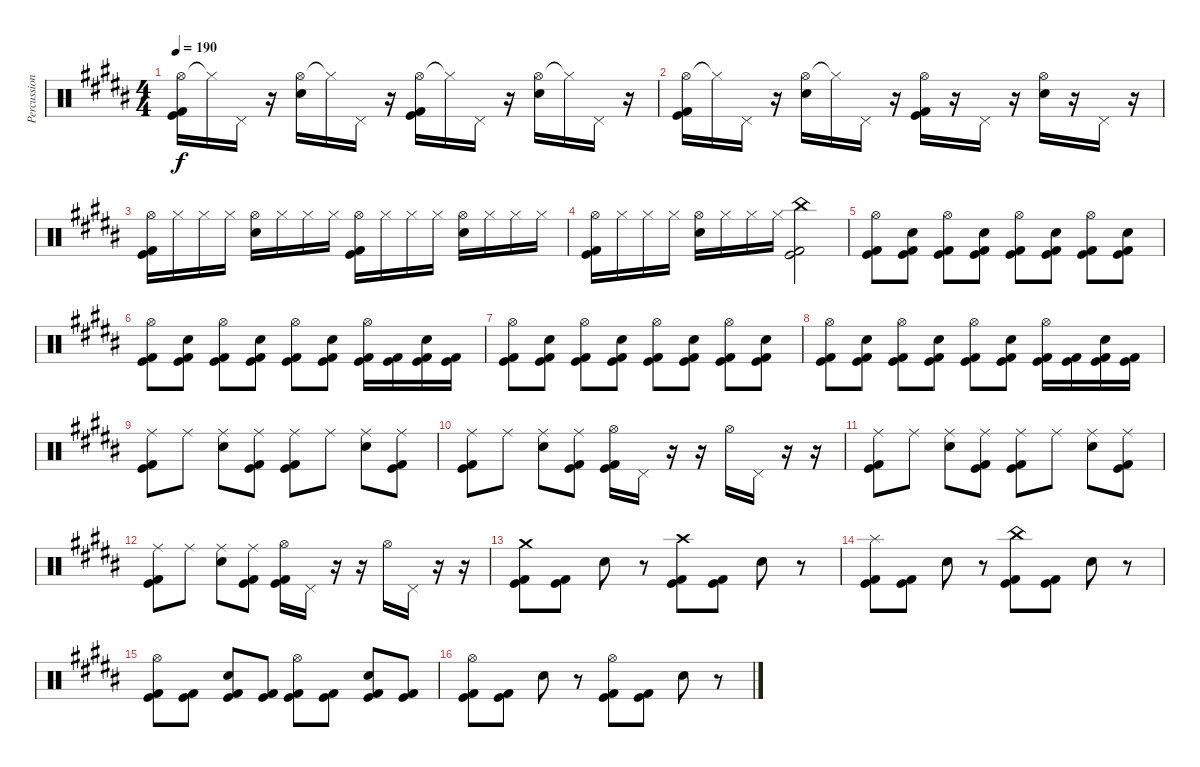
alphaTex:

\track ("Percussion" "Percussion") {instrument percussion}
\staff {score}
\articulation defaults
\ts (4 4)
\tempo 190
\clef neutral
\ks g#minor
("Hi-Hat (open)" "Kick (hit)" "Kick (hit) 2").16{dy f} "Hi-Hat (closed)"{t}.16 "Pedal Hi-Hat (hit)".16 r.16 ("Hi-Hat (open)" "Snare (hit) 2").16 "Hi-Hat (closed)"{t}.16 "Pedal Hi-Hat (hit)".16 r.16 ("Hi-Hat (open)" "Kick (hit)" "Kick (hit) 2").16 "Hi-Hat (closed)"{t}.16 "Pedal Hi-Hat (hit)".16 r.16 ("Hi-Hat (open)" "Snare (hit) 2").16 "Hi-Hat (closed)"{t}.16 "Pedal Hi-Hat (hit)".16 r.16 |
("Hi-Hat (open)" "Kick (hit)" "Kick (hit) 2").16 "Hi-Hat (closed)"{t}.16 "Pedal Hi-Hat (hit)".16 r.16 ("Hi-Hat (open)" "Snare (hit) 2").16 "Hi-Hat (closed)"{t}.16 "Pedal Hi-Hat (hit)".16 r.16 ("Hi-Hat (open)" "Kick (hit)" "Kick (hit) 2").16 r.16 "Pedal Hi-Hat (hit)".16 r.16 ("Hi-Hat (open)" "Snare (hit) 2").16 r.16 "Pedal Hi-Hat (hit)".16 r.16 |
("Hi-Hat (open)" "Kick (hit)" "Kick (hit) 2").16 "Hi-Hat (closed)".16 "Hi-Hat (closed)".16 "Hi-Hat (closed)".16 ("Hi-Hat (open)" "Snare (hit) 2").16 "Hi-Hat (closed)".16 "Hi-Hat (closed)".16 "Hi-Hat (closed)".16 ("Hi-Hat (open)" "Kick (hit)" "Kick (hit) 2").16 "Hi-Hat (closed)".16 "Hi-Hat (closed)".16 "Hi-Hat (closed)".16 ("Hi-Hat (open)" "Snare (hit) 2").16 "Hi-Hat (closed)".16 "Hi-Hat (closed)".16 "Hi-Hat (closed)".16 |
("Hi-Hat (open)" "Kick (hit)" "Kick (hit) 2").16 "Hi-Hat (closed)".16 "Hi-Hat (closed)".16 "Hi-Hat (closed)".16 ("Hi-Hat (open)" "Snare (hit) 2").16 "Hi-Hat (closed)".16 "Hi-Hat (closed)".16 "Hi-Hat (closed)".16 ("China (hit)" "Kick (hit)" "Kick (hit) 2").2 |
("Hi-Hat (open)" "Kick (hit)" "Kick (hit) 2").8 ("Snare (hit) 2" "Kick (hit)" "Kick (hit) 2").8 ("Hi-Hat (open)" "Kick (hit)" "Kick (hit) 2").8 ("Snare (hit) 2" "Kick (hit)" "Kick (hit) 2").8 ("Hi-Hat (open)" "Kick (hit)" "Kick (hit) 2").8 ("Snare (hit) 2" "Kick (hit)" "Kick (hit) 2").8 ("Hi-Hat (open)" "Kick (hit)" "Kick (hit) 2").8 ("Snare (hit) 2" "Kick (hit)" "Kick (hit) 2").8 |
("Hi-Hat (open)" "Kick (hit)" "Kick (hit) 2").8 ("Snare (hit) 2" "Kick (hit)" "Kick (hit) 2").8 ("Hi-Hat (open)" "Kick (hit)" "Kick (hit) 2").8 ("Snare (hit) 2" "Kick (hit)" "Kick (hit) 2").8 ("Hi-Hat (open)" "Kick (hit)" "Kick (hit) 2").8 ("Snare (hit) 2" "Kick (hit)" "Kick (hit) 2").8 ("Hi-Hat (open)" "Kick (hit)" "Kick (hit) 2").16 ("Kick (hit)" "Kick (hit) 2").16 ("Snare (hit) 2" "Kick (hit)" "Kick (hit) 2").16 ("Kick (hit)" "Kick (hit) 2").16 |
("Hi-Hat (open)" "Kick (hit)" "Kick (hit) 2").8 ("Snare (hit) 2" "Kick (hit)" "Kick (hit) 2").8 ("Hi-Hat (open)" "Kick (hit)" "Kick (hit) 2").8 ("Snare (hit) 2" "Kick (hit)" "Kick (hit) 2").8 ("Hi-Hat (open)" "Kick (hit)" "Kick (hit) 2").8 ("Snare (hit) 2" "Kick (hit)" "Kick (hit) 2").8 ("Hi-Hat (open)" "Kick (hit)" "Kick (hit) 2").8 ("Snare (hit) 2" "Kick (hit)" "Kick (hit) 2").8 |
("Hi-Hat (open)" "Kick (hit)" "Kick (hit) 2").8 ("Snare (hit) 2" "Kick (hit)" "Kick (hit) 2").8 ("Hi-Hat (open)" "Kick (hit)" "Kick (hit) 2").8 ("Snare (hit) 2" "Kick (hit)" "Kick (hit) 2").8 ("Hi-Hat (open)" "Kick (hit)" "Kick (hit) 2").8 ("Snare (hit) 2" "Kick (hit)" "Kick (hit) 2").8 ("Hi-Hat (open)" "Kick (hit)" "Kick (hit) 2").16 ("Kick (hit)" "Kick (hit) 2").16 ("Snare (hit) 2" "Kick (hit)" "Kick (hit) 2").16 ("Kick (hit)" "Kick (hit) 2").16 |
("Ride (middle)" "Kick (hit)" "Kick (hit) 2").8 "Ride (middle)".8 ("Ride (middle)" "Snare (hit) 2").8 ("Ride (middle)" "Kick (hit)" "Kick (hit) 2").8 ("Ride (middle)" "Kick (hit)" "Kick (hit) 2").8 "Ride (middle)".8 ("Ride (middle)" "Snare (hit) 2").8 ("Ride (middle)" "Kick (hit)" "Kick (hit) 2").8 |
("Ride (middle)" "Kick (hit)" "Kick (hit) 2").8 "Ride (middle)".8 ("Ride (middle)" "Snare (hit) 2").8 ("Ride (middle)" "Kick (hit)" "Kick (hit) 2").8 ("Hi-Hat (open)" "Kick (hit)" "Kick (hit) 2").16 "Pedal Hi-Hat (hit)".16 r.16 r.16 "Hi-Hat (open)".16 "Pedal Hi-Hat (hit)".16 r.16 r.16 |
("Ride (middle)" "Kick (hit)" "Kick (hit) 2").8 "Ride (middle)".8 ("Ride (middle)" "Snare (hit) 2").8 ("Ride (middle)" "Kick (hit)" "Kick (hit) 2").8 ("Ride (middle)" "Kick (hit)" "Kick (hit) 2").8 "Ride (middle)".8 ("Ride (middle)" "Snare (hit) 2").8 ("Ride (middle)" "Kick (hit)" "Kick (hit) 2").8 |
("Ride (middle)" "Kick (hit)" "Kick (hit) 2").8 "Ride (middle)".8 ("Ride (middle)" "Snare (hit) 2").8 ("Ride (middle)" "Kick (hit)" "Kick (hit) 2").8 ("Hi-Hat (open)" "Kick (hit)" "Kick (hit) 2").16 "Pedal Hi-Hat (hit)".16 r.16 r.16 "Hi-Hat (open)".16 "Pedal Hi-Hat (hit)".16 r.16 r.16 |
("Crash medium (hit)" "Kick (hit)" "Kick (hit) 2").8 ("Kick (hit)" "Kick (hit) 2").8 "Snare (hit) 2".8 r.8 ("Crash high (hit)" "Kick (hit)" "Kick (hit) 2").8 ("Kick (hit)" "Kick (hit) 2").8 "Snare (hit) 2".8 r.8 |
("Splash (hit)" "Kick (hit)" "Kick (hit) 2").8 ("Kick (hit)" "Kick (hit) 2").8 "Snare (hit) 2".8 r.8 ("China (hit)" "Kick (hit)" "Kick (hit) 2").8 ("Kick (hit)" "Kick (hit) 2").8 "Snare (hit) 2".8 r.8 |
("Hi-Hat (open)" "Kick (hit)" "Kick (hit) 2").8 ("Kick (hit)" "Kick (hit) 2").8 ("Snare (hit) 2" "Kick (hit)" "Kick (hit) 2").8 ("Kick (hit)" "Kick (hit) 2").8 ("Hi-Hat (open)" "Kick (hit)" "Kick (hit) 2").8 ("Kick (hit)" "Kick (hit) 2").8 ("Snare (hit) 2" "Kick (hit)" "Kick (hit) 2").8 ("Kick (hit)" "Kick (hit) 2").8 |
("Hi-Hat (open)" "Kick (hit)" "Kick (hit) 2").8 ("Kick (hit)" "Kick (hit) 2").8 "Snare (hit) 2".8 r.8 ("Hi-Hat (open)" "Kick (hit)" "Kick (hit) 2").8 ("Kick (hit)" "Kick (hit) 2").8 "Snare (hit) 2".8 r.8
